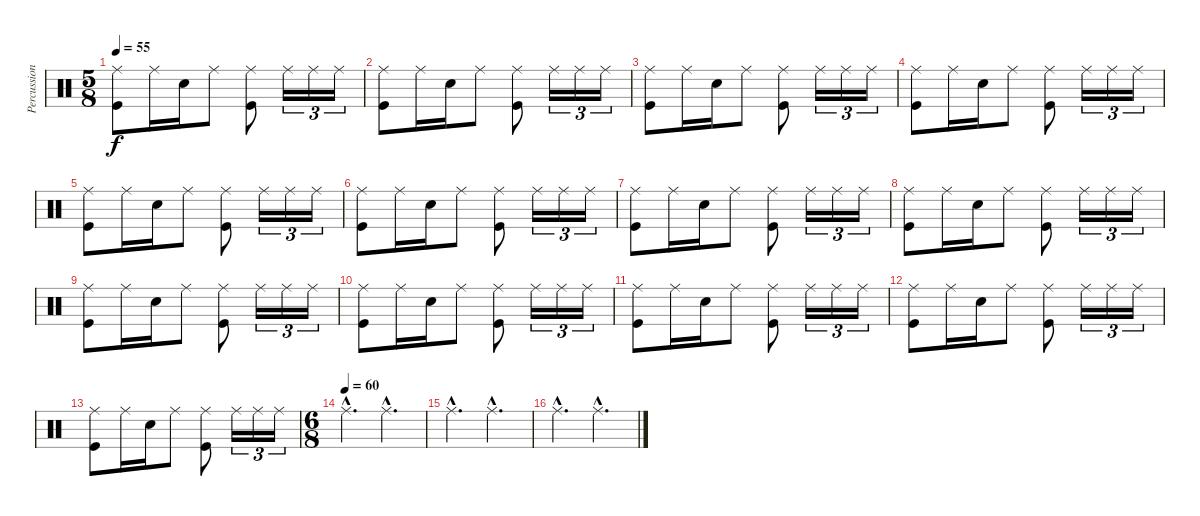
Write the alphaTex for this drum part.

\track ("Percussions" "Percussion") {instrument percussion}
\staff {score}
\articulation defaults
\ts (5 8)
\tempo 55
\clef neutral
\ks c
("Ride (middle)" "Kick (hit)").8{dy f} "Ride (middle)".16 "Snare (hit) 2".16 "Ride (middle)".8 ("Ride (middle)" "Kick (hit)").8 "Ride (middle)".16{tu (3 2)} "Ride (middle)".16{tu (3 2)} "Ride (middle)".16{tu (3 2)} |
("Ride (middle)" "Kick (hit)").8 "Ride (middle)".16 "Snare (hit) 2".16 "Ride (middle)".8 ("Ride (middle)" "Kick (hit)").8 "Ride (middle)".16{tu (3 2)} "Ride (middle)".16{tu (3 2)} "Ride (middle)".16{tu (3 2)} |
("Ride (middle)" "Kick (hit)").8 "Ride (middle)".16 "Snare (hit) 2".16 "Ride (middle)".8 ("Ride (middle)" "Kick (hit)").8 "Ride (middle)".16{tu (3 2)} "Ride (middle)".16{tu (3 2)} "Ride (middle)".16{tu (3 2)} |
("Ride (middle)" "Kick (hit)").8 "Ride (middle)".16 "Snare (hit) 2".16 "Ride (middle)".8 ("Ride (middle)" "Kick (hit)").8 "Ride (middle)".16{tu (3 2)} "Ride (middle)".16{tu (3 2)} "Ride (middle)".16{tu (3 2)} |
("Ride (middle)" "Kick (hit)").8 "Ride (middle)".16 "Snare (hit) 2".16 "Ride (middle)".8 ("Ride (middle)" "Kick (hit)").8 "Ride (middle)".16{tu (3 2)} "Ride (middle)".16{tu (3 2)} "Ride (middle)".16{tu (3 2)} |
("Ride (middle)" "Kick (hit)").8 "Ride (middle)".16 "Snare (hit) 2".16 "Ride (middle)".8 ("Ride (middle)" "Kick (hit)").8 "Ride (middle)".16{tu (3 2)} "Ride (middle)".16{tu (3 2)} "Ride (middle)".16{tu (3 2)} |
("Ride (middle)" "Kick (hit)").8 "Ride (middle)".16 "Snare (hit) 2".16 "Ride (middle)".8 ("Ride (middle)" "Kick (hit)").8 "Ride (middle)".16{tu (3 2)} "Ride (middle)".16{tu (3 2)} "Ride (middle)".16{tu (3 2)} |
("Ride (middle)" "Kick (hit)").8 "Ride (middle)".16 "Snare (hit) 2".16 "Ride (middle)".8 ("Ride (middle)" "Kick (hit)").8 "Ride (middle)".16{tu (3 2)} "Ride (middle)".16{tu (3 2)} "Ride (middle)".16{tu (3 2)} |
("Ride (middle)" "Kick (hit)").8 "Ride (middle)".16 "Snare (hit) 2".16 "Ride (middle)".8 ("Ride (middle)" "Kick (hit)").8 "Ride (middle)".16{tu (3 2)} "Ride (middle)".16{tu (3 2)} "Ride (middle)".16{tu (3 2)} |
("Ride (middle)" "Kick (hit)").8 "Ride (middle)".16 "Snare (hit) 2".16 "Ride (middle)".8 ("Ride (middle)" "Kick (hit)").8 "Ride (middle)".16{tu (3 2)} "Ride (middle)".16{tu (3 2)} "Ride (middle)".16{tu (3 2)} |
("Ride (middle)" "Kick (hit)").8 "Ride (middle)".16 "Snare (hit) 2".16 "Ride (middle)".8 ("Ride (middle)" "Kick (hit)").8 "Ride (middle)".16{tu (3 2)} "Ride (middle)".16{tu (3 2)} "Ride (middle)".16{tu (3 2)} |
("Ride (middle)" "Kick (hit)").8 "Ride (middle)".16 "Snare (hit) 2".16 "Ride (middle)".8 ("Ride (middle)" "Kick (hit)").8 "Ride (middle)".16{tu (3 2)} "Ride (middle)".16{tu (3 2)} "Ride (middle)".16{tu (3 2)} |
("Ride (middle)" "Kick (hit)").8 "Ride (middle)".16 "Snare (hit) 2".16 "Ride (middle)".8 ("Ride (middle)" "Kick (hit)").8 "Ride (middle)".16{tu (3 2)} "Ride (middle)".16{tu (3 2)} "Ride (middle)".16{tu (3 2)} |
\ts (6 8)
\tempo (60)
"Ride (middle)"{hac}.4{d} "Ride (middle)"{hac}.4{d} |
"Ride (middle)"{hac}.4{d} "Ride (middle)"{hac}.4{d} |
"Ride (middle)"{hac}.4{d} "Ride (middle)"{hac}.4{d}
